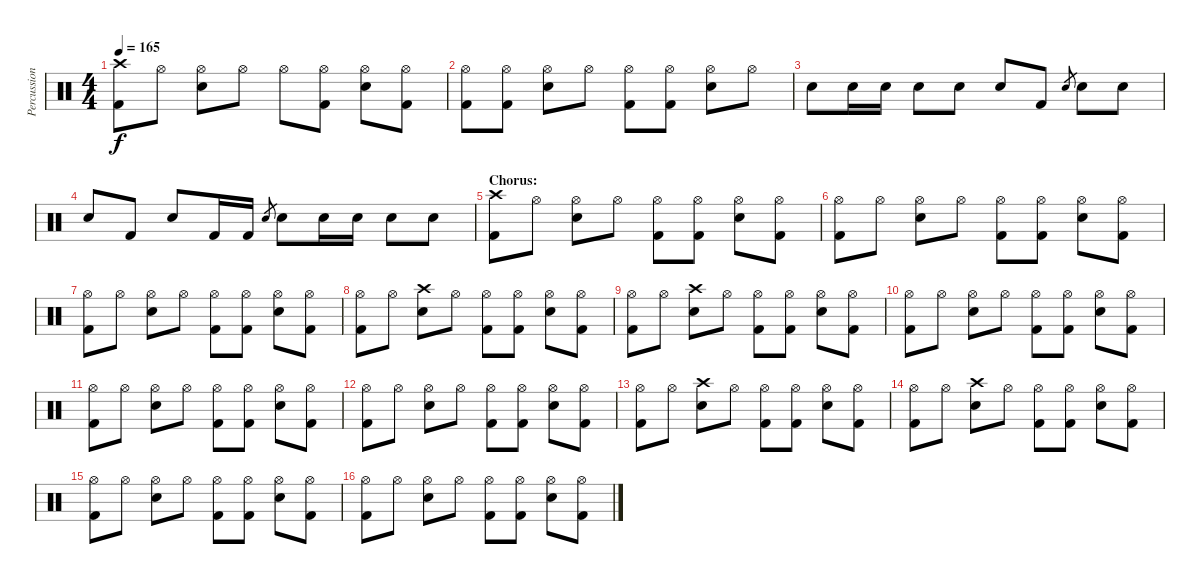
\track ("Percussion" "Percussion") {instrument percussion}
\staff {score}
\articulation defaults
\ts (4 4)
\tempo 165
\clef neutral
\ks c
("Crash high (hit)" "Kick (hit) 2").8{dy f} "Hi-Hat (open)".8 ("Hi-Hat (open)" "Snare (hit) 2").8 "Hi-Hat (open)".8 "Hi-Hat (open)".8 ("Hi-Hat (open)" "Kick (hit) 2").8 ("Hi-Hat (open)" "Snare (hit) 2").8 ("Hi-Hat (open)" "Kick (hit) 2").8 |
("Hi-Hat (open)" "Kick (hit) 2").8 ("Hi-Hat (open)" "Kick (hit) 2").8 ("Hi-Hat (open)" "Snare (hit) 2").8 "Hi-Hat (open)".8 ("Hi-Hat (open)" "Kick (hit) 2").8 ("Hi-Hat (open)" "Kick (hit) 2").8 ("Hi-Hat (open)" "Snare (hit) 2").8 "Hi-Hat (open)".8 |
"Snare (hit) 2".8 "Snare (hit) 2".16 "Snare (hit) 2".16 "Snare (hit) 2".8 "Snare (hit) 2".8 "Snare (hit) 2".8 "Kick (hit) 2".8 "Snare (hit) 2".8{gr} "Snare (hit) 2".8 "Snare (hit) 2".8 |
"Snare (hit) 2".8 "Kick (hit) 2".8 "Snare (hit) 2".8 "Kick (hit) 2".16 "Kick (hit) 2".16 "Snare (hit) 2".8{gr} "Snare (hit) 2".8 "Snare (hit) 2".16 "Snare (hit) 2".16 "Snare (hit) 2".8 "Snare (hit) 2".8 |
\section ("" "Chorus:")
("Crash high (hit)" "Kick (hit) 2").8 "Hi-Hat (open)".8 ("Hi-Hat (open)" "Snare (hit) 2").8 "Hi-Hat (open)".8 ("Hi-Hat (open)" "Kick (hit) 2").8 ("Hi-Hat (open)" "Kick (hit) 2").8 ("Hi-Hat (open)" "Snare (hit) 2").8 ("Hi-Hat (open)" "Kick (hit) 2").8 |
("Hi-Hat (open)" "Kick (hit) 2").8 "Hi-Hat (open)".8 ("Hi-Hat (open)" "Snare (hit) 2").8 "Hi-Hat (open)".8 ("Hi-Hat (open)" "Kick (hit) 2").8 ("Hi-Hat (open)" "Kick (hit) 2").8 ("Hi-Hat (open)" "Snare (hit) 2").8 ("Hi-Hat (open)" "Kick (hit) 2").8 |
("Hi-Hat (open)" "Kick (hit) 2").8 "Hi-Hat (open)".8 ("Hi-Hat (open)" "Snare (hit) 2").8 "Hi-Hat (open)".8 ("Hi-Hat (open)" "Kick (hit) 2").8 ("Hi-Hat (open)" "Kick (hit) 2").8 ("Hi-Hat (open)" "Snare (hit) 2").8 ("Hi-Hat (open)" "Kick (hit) 2").8 |
("Hi-Hat (open)" "Kick (hit) 2").8 "Hi-Hat (open)".8 ("Crash high (hit)" "Snare (hit) 2").8 "Hi-Hat (open)".8 ("Hi-Hat (open)" "Kick (hit) 2").8 ("Hi-Hat (open)" "Kick (hit) 2").8 ("Hi-Hat (open)" "Snare (hit) 2").8 ("Hi-Hat (open)" "Kick (hit) 2").8 |
("Hi-Hat (open)" "Kick (hit) 2").8 "Hi-Hat (open)".8 ("Crash high (hit)" "Snare (hit) 2").8 "Hi-Hat (open)".8 ("Hi-Hat (open)" "Kick (hit) 2").8 ("Hi-Hat (open)" "Kick (hit) 2").8 ("Hi-Hat (open)" "Snare (hit) 2").8 ("Hi-Hat (open)" "Kick (hit) 2").8 |
("Hi-Hat (open)" "Kick (hit) 2").8 "Hi-Hat (open)".8 ("Hi-Hat (open)" "Snare (hit) 2").8 "Hi-Hat (open)".8 ("Hi-Hat (open)" "Kick (hit) 2").8 ("Hi-Hat (open)" "Kick (hit) 2").8 ("Hi-Hat (open)" "Snare (hit) 2").8 ("Hi-Hat (open)" "Kick (hit) 2").8 |
("Hi-Hat (open)" "Kick (hit) 2").8 "Hi-Hat (open)".8 ("Hi-Hat (open)" "Snare (hit) 2").8 "Hi-Hat (open)".8 ("Hi-Hat (open)" "Kick (hit) 2").8 ("Hi-Hat (open)" "Kick (hit) 2").8 ("Hi-Hat (open)" "Snare (hit) 2").8 ("Hi-Hat (open)" "Kick (hit) 2").8 |
("Hi-Hat (open)" "Kick (hit) 2").8 "Hi-Hat (open)".8 ("Hi-Hat (open)" "Snare (hit) 2").8 "Hi-Hat (open)".8 ("Hi-Hat (open)" "Kick (hit) 2").8 ("Hi-Hat (open)" "Kick (hit) 2").8 ("Hi-Hat (open)" "Snare (hit) 2").8 ("Hi-Hat (open)" "Kick (hit) 2").8 |
("Hi-Hat (open)" "Kick (hit) 2").8 "Hi-Hat (open)".8 ("Crash high (hit)" "Snare (hit) 2").8 "Hi-Hat (open)".8 ("Hi-Hat (open)" "Kick (hit) 2").8 ("Hi-Hat (open)" "Kick (hit) 2").8 ("Hi-Hat (open)" "Snare (hit) 2").8 ("Hi-Hat (open)" "Kick (hit) 2").8 |
("Hi-Hat (open)" "Kick (hit) 2").8 "Hi-Hat (open)".8 ("Crash high (hit)" "Snare (hit) 2").8 "Hi-Hat (open)".8 ("Hi-Hat (open)" "Kick (hit) 2").8 ("Hi-Hat (open)" "Kick (hit) 2").8 ("Hi-Hat (open)" "Snare (hit) 2").8 ("Hi-Hat (open)" "Kick (hit) 2").8 |
("Hi-Hat (open)" "Kick (hit) 2").8 "Hi-Hat (open)".8 ("Hi-Hat (open)" "Snare (hit) 2").8 "Hi-Hat (open)".8 ("Hi-Hat (open)" "Kick (hit) 2").8 ("Hi-Hat (open)" "Kick (hit) 2").8 ("Hi-Hat (open)" "Snare (hit) 2").8 ("Hi-Hat (open)" "Kick (hit) 2").8 |
("Hi-Hat (open)" "Kick (hit) 2").8 "Hi-Hat (open)".8 ("Hi-Hat (open)" "Snare (hit) 2").8 "Hi-Hat (open)".8 ("Hi-Hat (open)" "Kick (hit) 2").8 ("Hi-Hat (open)" "Kick (hit) 2").8 ("Hi-Hat (open)" "Snare (hit) 2").8 ("Hi-Hat (open)" "Kick (hit) 2").8
